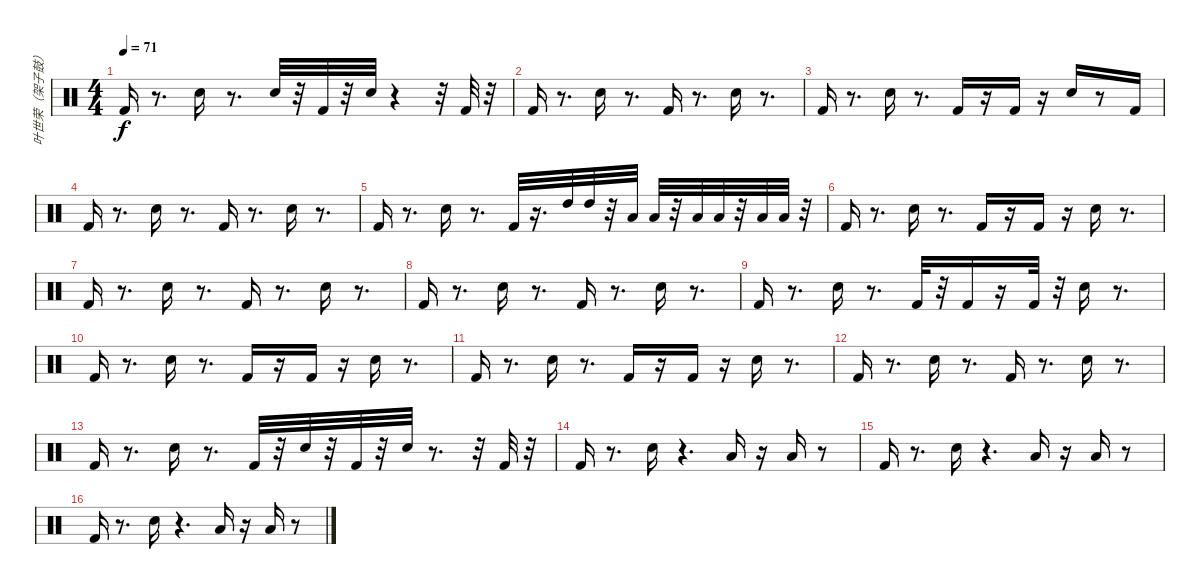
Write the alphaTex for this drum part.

\track ("叶世荣（架子鼓）" "叶世荣（架子鼓）") {instrument percussion}
\staff {score}
\articulation defaults
\ts (4 4)
\tempo 71
\clef neutral
\ks c "Kick (hit) 2".16{dy f}
r.8{d} "Snare (hit) 2".16 r.8{d} "Snare (hit) 2".32 r.32 "Kick (hit) 2".32 r.32 "Snare (hit) 2".32 r.4 r.32 "Kick (hit) 2".32 r.32 |
"Kick (hit) 2".16 r.8{d} "Snare (hit) 2".16 r.8{d} "Kick (hit) 2".16 r.8{d} "Snare (hit) 2".16 r.8{d} |
"Kick (hit) 2".16 r.8{d} "Snare (hit) 2".16 r.8{d} "Kick (hit) 2".16 r.16 "Kick (hit) 2".16 r.16 "Snare (hit) 2".16 r.8 "Kick (hit) 2".16 |
"Kick (hit) 2".16 r.8{d} "Snare (hit) 2".16 r.8{d} "Kick (hit) 2".16 r.8{d} "Snare (hit) 2".16 r.8{d} |
"Kick (hit) 2".16 r.8{d} "Snare (hit) 2".16 r.8{d} "Kick (hit) 2".32 r.16{d} "High Tom (hit)".32 "High Tom (hit)".32 r.32 "Low Tom (hit)".32 "Low Tom (hit)".32 r.32 "Low Floor Tom (hit)".32 "Low Floor Tom (hit)".32 r.32 "Low Floor Tom (hit)".32 "Low Floor Tom (hit)".32 r.32 |
"Kick (hit) 2".16 r.8{d} "Snare (hit) 2".16 r.8{d} "Kick (hit) 2".16 r.16 "Kick (hit) 2".16 r.16 "Snare (hit) 2".16 r.8{d} |
"Kick (hit) 2".16 r.8{d} "Snare (hit) 2".16 r.8{d} "Kick (hit) 2".16 r.8{d} "Snare (hit) 2".16 r.8{d} |
"Kick (hit) 2".16 r.8{d} "Snare (hit) 2".16 r.8{d} "Kick (hit) 2".16 r.8{d} "Snare (hit) 2".16 r.8{d} |
"Kick (hit) 2".16 r.8{d} "Snare (hit) 2".16 r.8{d} "Kick (hit) 2".32 r.32 "Kick (hit) 2".16 r.16 "Kick (hit) 2".32 r.32 "Snare (hit) 2".16 r.8{d} |
"Kick (hit) 2".16 r.8{d} "Snare (hit) 2".16 r.8{d} "Kick (hit) 2".16 r.16 "Kick (hit) 2".16 r.16 "Snare (hit) 2".16 r.8{d} |
"Kick (hit) 2".16 r.8{d} "Snare (hit) 2".16 r.8{d} "Kick (hit) 2".16 r.16 "Kick (hit) 2".16 r.16 "Snare (hit) 2".16 r.8{d} |
"Kick (hit) 2".16 r.8{d} "Snare (hit) 2".16 r.8{d} "Kick (hit) 2".16 r.8{d} "Snare (hit) 2".16 r.8{d} |
"Kick (hit) 2".16 r.8{d} "Snare (hit) 2".16 r.8{d} "Kick (hit) 2".32 r.32 "Snare (hit) 2".32 r.32 "Kick (hit) 2".32 r.32 "Snare (hit) 2".32 r.8{d} r.32 "Kick (hit) 2".32 r.32 |
"Kick (hit) 2".16 r.8{d} "Snare (hit) 2".16 r.4{d} "Low Floor Tom (hit)".16 r.16 "Low Floor Tom (hit)".16 r.8 |
"Kick (hit) 2".16 r.8{d} "Snare (hit) 2".16 r.4{d} "Low Floor Tom (hit)".16 r.16 "Low Floor Tom (hit)".16 r.8 |
"Kick (hit) 2".16 r.8{d} "Snare (hit) 2".16 r.4{d} "Low Floor Tom (hit)".16 r.16 "Low Floor Tom (hit)".16 r.8
